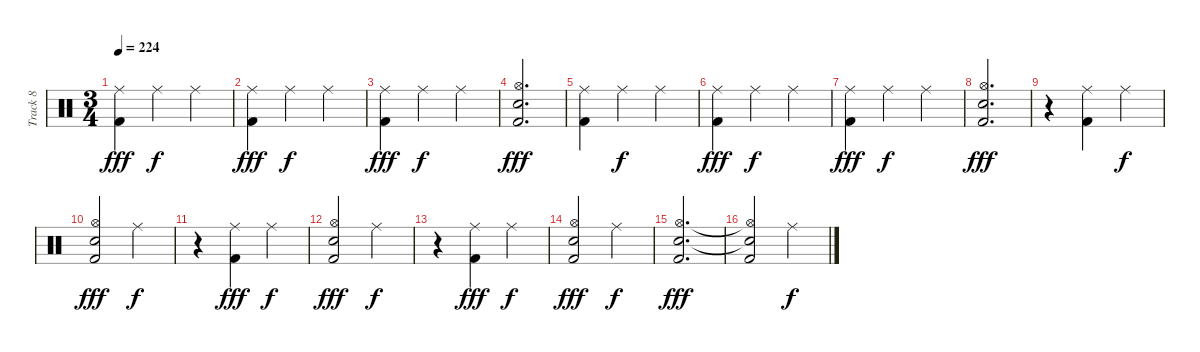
\track ("Track 8" "Track 8") {instrument percussion}
\staff {score}
\articulation defaults
\ts (3 4)
\tempo 224
\clef neutral
\ks c
("Ride (middle)" "Kick (hit) 2").4{dy fff} "Ride (middle)".4{dy f} "Ride (middle)".4 |
("Ride (middle)" "Kick (hit) 2").4{dy fff} "Ride (middle)".4{dy f} "Ride (middle)".4 |
("Ride (middle)" "Kick (hit) 2").4{dy fff} "Ride (middle)".4{dy f} "Ride (middle)".4 |
("Hi-Hat (open)" "Kick (hit) 2" "Snare (hit)").2{d dy fff} |
("Ride (middle)" "Kick (hit) 2").4 "Ride (middle)".4{dy f} "Ride (middle)".4 |
("Ride (middle)" "Kick (hit) 2").4{dy fff} "Ride (middle)".4{dy f} "Ride (middle)".4 |
("Ride (middle)" "Kick (hit) 2").4{dy fff} "Ride (middle)".4{dy f} "Ride (middle)".4 |
("Hi-Hat (open)" "Kick (hit) 2" "Snare (hit)").2{d dy fff} |
r.4 ("Ride (middle)" "Kick (hit) 2").4 "Ride (middle)".4{dy f} |
("Hi-Hat (open)" "Kick (hit) 2" "Snare (hit)").2{dy fff} "Ride (middle)".4{dy f} |
r.4 ("Ride (middle)" "Kick (hit) 2").4{dy fff} "Ride (middle)".4{dy f} |
("Hi-Hat (open)" "Kick (hit) 2" "Snare (hit)").2{dy fff} "Ride (middle)".4{dy f} |
r.4 ("Ride (middle)" "Kick (hit) 2").4{dy fff} "Ride (middle)".4{dy f} |
("Hi-Hat (open)" "Kick (hit) 2" "Snare (hit)").2{dy fff} "Ride (middle)".4{dy f} |
("Hi-Hat (open)" "Kick (hit) 2" "Snare (hit)").2{d dy fff} |
("Hi-Hat (open)"{t} "Kick (hit) 2" "Snare (hit)"{t}).2 "Ride (middle)".4{dy f}
